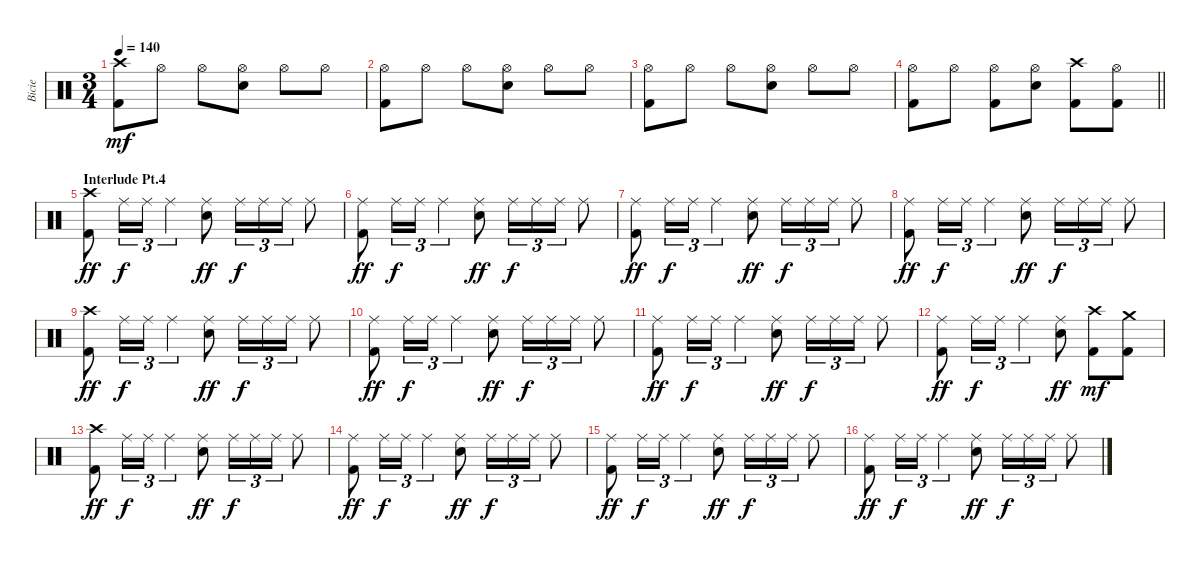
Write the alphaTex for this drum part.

\track ("Bicie" "Bicie") {instrument percussion}
\staff {score}
\articulation defaults
\ts (3 4)
\tempo 140
\clef neutral
\ks c
("Crash high (hit)" "Kick (hit) 2").8{dy mf} "Hi-Hat (open)".8 "Hi-Hat (open)".8 ("Hi-Hat (open)" "Snare (hit) 2").8 "Hi-Hat (open)".8 "Hi-Hat (open)".8 |
("Hi-Hat (open)" "Kick (hit) 2").8 "Hi-Hat (open)".8 "Hi-Hat (open)".8 ("Hi-Hat (open)" "Snare (hit) 2").8 "Hi-Hat (open)".8 "Hi-Hat (open)".8 |
("Hi-Hat (open)" "Kick (hit) 2").8 "Hi-Hat (open)".8 "Hi-Hat (open)".8 ("Hi-Hat (open)" "Snare (hit) 2").8 "Hi-Hat (open)".8 "Hi-Hat (open)".8 |
\barLineRight lightlight
("Hi-Hat (open)" "Kick (hit) 2").8 "Hi-Hat (open)".8 ("Hi-Hat (open)" "Kick (hit) 2").8 ("Hi-Hat (open)" "Snare (hit) 2").8 ("Crash high (hit)" "Kick (hit) 2").8 ("Hi-Hat (open)" "Kick (hit) 2").8 |
\section ("" "Interlude Pt.4")
("Crash high (hit)" "Kick (hit) 2").8{dy ff} "Ride (middle)".16{tu (3 2) dy f} "Ride (middle)".16{tu (3 2)} "Ride (middle)".4{tu (3 2)} ("Ride (middle)" "Snare (hit) 2").8{dy ff} "Ride (middle)".16{tu (3 2) dy f} "Ride (middle)".16{tu (3 2)} "Ride (middle)".16{tu (3 2)} "Ride (middle)".8 |
("Ride (middle)" "Kick (hit) 2").8{dy ff} "Ride (middle)".16{tu (3 2) dy f} "Ride (middle)".16{tu (3 2)} "Ride (middle)".4{tu (3 2)} ("Ride (middle)" "Snare (hit) 2").8{dy ff} "Ride (middle)".16{tu (3 2) dy f} "Ride (middle)".16{tu (3 2)} "Ride (middle)".16{tu (3 2)} "Ride (middle)".8 |
("Ride (middle)" "Kick (hit) 2").8{dy ff} "Ride (middle)".16{tu (3 2) dy f} "Ride (middle)".16{tu (3 2)} "Ride (middle)".4{tu (3 2)} ("Ride (middle)" "Snare (hit) 2").8{dy ff} "Ride (middle)".16{tu (3 2) dy f} "Ride (middle)".16{tu (3 2)} "Ride (middle)".16{tu (3 2)} "Ride (middle)".8 |
("Ride (middle)" "Kick (hit) 2").8{dy ff} "Ride (middle)".16{tu (3 2) dy f} "Ride (middle)".16{tu (3 2)} "Ride (middle)".4{tu (3 2)} ("Ride (middle)" "Snare (hit) 2").8{dy ff} "Ride (middle)".16{tu (3 2) dy f} "Ride (middle)".16{tu (3 2)} "Ride (middle)".16{tu (3 2)} "Ride (middle)".8 |
("Crash high (hit)" "Kick (hit) 2").8{dy ff} "Ride (middle)".16{tu (3 2) dy f} "Ride (middle)".16{tu (3 2)} "Ride (middle)".4{tu (3 2)} ("Ride (middle)" "Snare (hit) 2").8{dy ff} "Ride (middle)".16{tu (3 2) dy f} "Ride (middle)".16{tu (3 2)} "Ride (middle)".16{tu (3 2)} "Ride (middle)".8 |
("Ride (middle)" "Kick (hit) 2").8{dy ff} "Ride (middle)".16{tu (3 2) dy f} "Ride (middle)".16{tu (3 2)} "Ride (middle)".4{tu (3 2)} ("Ride (middle)" "Snare (hit) 2").8{dy ff} "Ride (middle)".16{tu (3 2) dy f} "Ride (middle)".16{tu (3 2)} "Ride (middle)".16{tu (3 2)} "Ride (middle)".8 |
("Ride (middle)" "Kick (hit) 2").8{dy ff} "Ride (middle)".16{tu (3 2) dy f} "Ride (middle)".16{tu (3 2)} "Ride (middle)".4{tu (3 2)} ("Ride (middle)" "Snare (hit) 2").8{dy ff} "Ride (middle)".16{tu (3 2) dy f} "Ride (middle)".16{tu (3 2)} "Ride (middle)".16{tu (3 2)} "Ride (middle)".8 |
("Ride (middle)" "Kick (hit) 2").8{dy ff} "Ride (middle)".16{tu (3 2) dy f} "Ride (middle)".16{tu (3 2)} "Ride (middle)".4{tu (3 2)} ("Ride (middle)" "Snare (hit) 2").8{dy ff} ("Crash high (hit)" "Kick (hit) 2").8{dy mf} ("Crash medium (hit)" "Kick (hit) 2").8 |
("Crash high (hit)" "Kick (hit) 2").8{dy ff} "Ride (middle)".16{tu (3 2) dy f} "Ride (middle)".16{tu (3 2)} "Ride (middle)".4{tu (3 2)} ("Ride (middle)" "Snare (hit) 2").8{dy ff} "Ride (middle)".16{tu (3 2) dy f} "Ride (middle)".16{tu (3 2)} "Ride (middle)".16{tu (3 2)} "Ride (middle)".8 |
("Ride (middle)" "Kick (hit) 2").8{dy ff} "Ride (middle)".16{tu (3 2) dy f} "Ride (middle)".16{tu (3 2)} "Ride (middle)".4{tu (3 2)} ("Ride (middle)" "Snare (hit) 2").8{dy ff} "Ride (middle)".16{tu (3 2) dy f} "Ride (middle)".16{tu (3 2)} "Ride (middle)".16{tu (3 2)} "Ride (middle)".8 |
("Ride (middle)" "Kick (hit) 2").8{dy ff} "Ride (middle)".16{tu (3 2) dy f} "Ride (middle)".16{tu (3 2)} "Ride (middle)".4{tu (3 2)} ("Ride (middle)" "Snare (hit) 2").8{dy ff} "Ride (middle)".16{tu (3 2) dy f} "Ride (middle)".16{tu (3 2)} "Ride (middle)".16{tu (3 2)} "Ride (middle)".8 |
("Ride (middle)" "Kick (hit) 2").8{dy ff} "Ride (middle)".16{tu (3 2) dy f} "Ride (middle)".16{tu (3 2)} "Ride (middle)".4{tu (3 2)} ("Ride (middle)" "Snare (hit) 2").8{dy ff} "Ride (middle)".16{tu (3 2) dy f} "Ride (middle)".16{tu (3 2)} "Ride (middle)".16{tu (3 2)} "Ride (middle)".8
